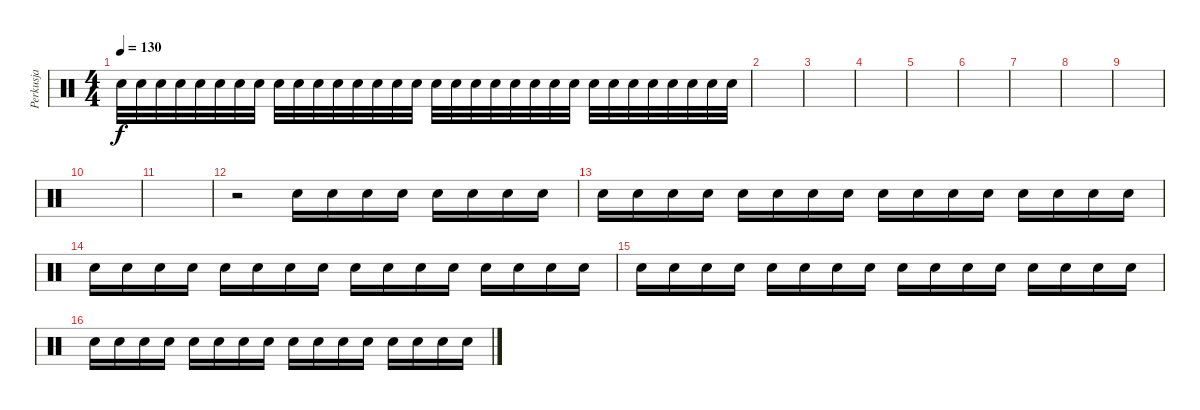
\track ("Perkusja" "Perkusja") {instrument percussion}
\staff {score}
\articulation defaults
\ts (4 4)
\tempo 130
\clef neutral
\ks c "Electric Snare (hit)".32{dy f} "Electric Snare (hit)".32 "Electric Snare (hit)".32 "Electric Snare (hit)".32 "Electric Snare (hit)".32 "Electric Snare (hit)".32 "Electric Snare (hit)".32 "Electric Snare (hit)".32 "Electric Snare (hit)".32 "Electric Snare (hit)".32 "Electric Snare (hit)".32 "Electric Snare (hit)".32 "Electric Snare (hit)".32 "Electric Snare (hit)".32 "Electric Snare (hit)".32 "Electric Snare (hit)".32 "Electric Snare (hit)".32 "Electric Snare (hit)".32 "Electric Snare (hit)".32 "Electric Snare (hit)".32 "Electric Snare (hit)".32 "Electric Snare (hit)".32 "Electric Snare (hit)".32 "Electric Snare (hit)".32 "Electric Snare (hit)".32 "Electric Snare (hit)".32 "Electric Snare (hit)".32 "Electric Snare (hit)".32 "Electric Snare (hit)".32 "Electric Snare (hit)".32 "Electric Snare (hit)".32 "Electric Snare (hit)".32
|
|
|
|
|
|
|
|
|
|
|
r.2 "Electric Snare (hit)".16 "Electric Snare (hit)".16 "Electric Snare (hit)".16 "Electric Snare (hit)".16 "Electric Snare (hit)".16 "Electric Snare (hit)".16 "Electric Snare (hit)".16 "Electric Snare (hit)".16 |
"Electric Snare (hit)".16 "Electric Snare (hit)".16 "Electric Snare (hit)".16 "Electric Snare (hit)".16 "Electric Snare (hit)".16 "Electric Snare (hit)".16 "Electric Snare (hit)".16 "Electric Snare (hit)".16 "Electric Snare (hit)".16 "Electric Snare (hit)".16 "Electric Snare (hit)".16 "Electric Snare (hit)".16 "Electric Snare (hit)".16 "Electric Snare (hit)".16 "Electric Snare (hit)".16 "Electric Snare (hit)".16 |
"Electric Snare (hit)".16 "Electric Snare (hit)".16 "Electric Snare (hit)".16 "Electric Snare (hit)".16 "Electric Snare (hit)".16 "Electric Snare (hit)".16 "Electric Snare (hit)".16 "Electric Snare (hit)".16 "Electric Snare (hit)".16 "Electric Snare (hit)".16 "Electric Snare (hit)".16 "Electric Snare (hit)".16 "Electric Snare (hit)".16 "Electric Snare (hit)".16 "Electric Snare (hit)".16 "Electric Snare (hit)".16 |
"Electric Snare (hit)".16 "Electric Snare (hit)".16 "Electric Snare (hit)".16 "Electric Snare (hit)".16 "Electric Snare (hit)".16 "Electric Snare (hit)".16 "Electric Snare (hit)".16 "Electric Snare (hit)".16 "Electric Snare (hit)".16 "Electric Snare (hit)".16 "Electric Snare (hit)".16 "Electric Snare (hit)".16 "Electric Snare (hit)".16 "Electric Snare (hit)".16 "Electric Snare (hit)".16 "Electric Snare (hit)".16 |
"Electric Snare (hit)".16 "Electric Snare (hit)".16 "Electric Snare (hit)".16 "Electric Snare (hit)".16 "Electric Snare (hit)".16 "Electric Snare (hit)".16 "Electric Snare (hit)".16 "Electric Snare (hit)".16 "Electric Snare (hit)".16 "Electric Snare (hit)".16 "Electric Snare (hit)".16 "Electric Snare (hit)".16 "Electric Snare (hit)".16 "Electric Snare (hit)".16 "Electric Snare (hit)".16 "Electric Snare (hit)".16
